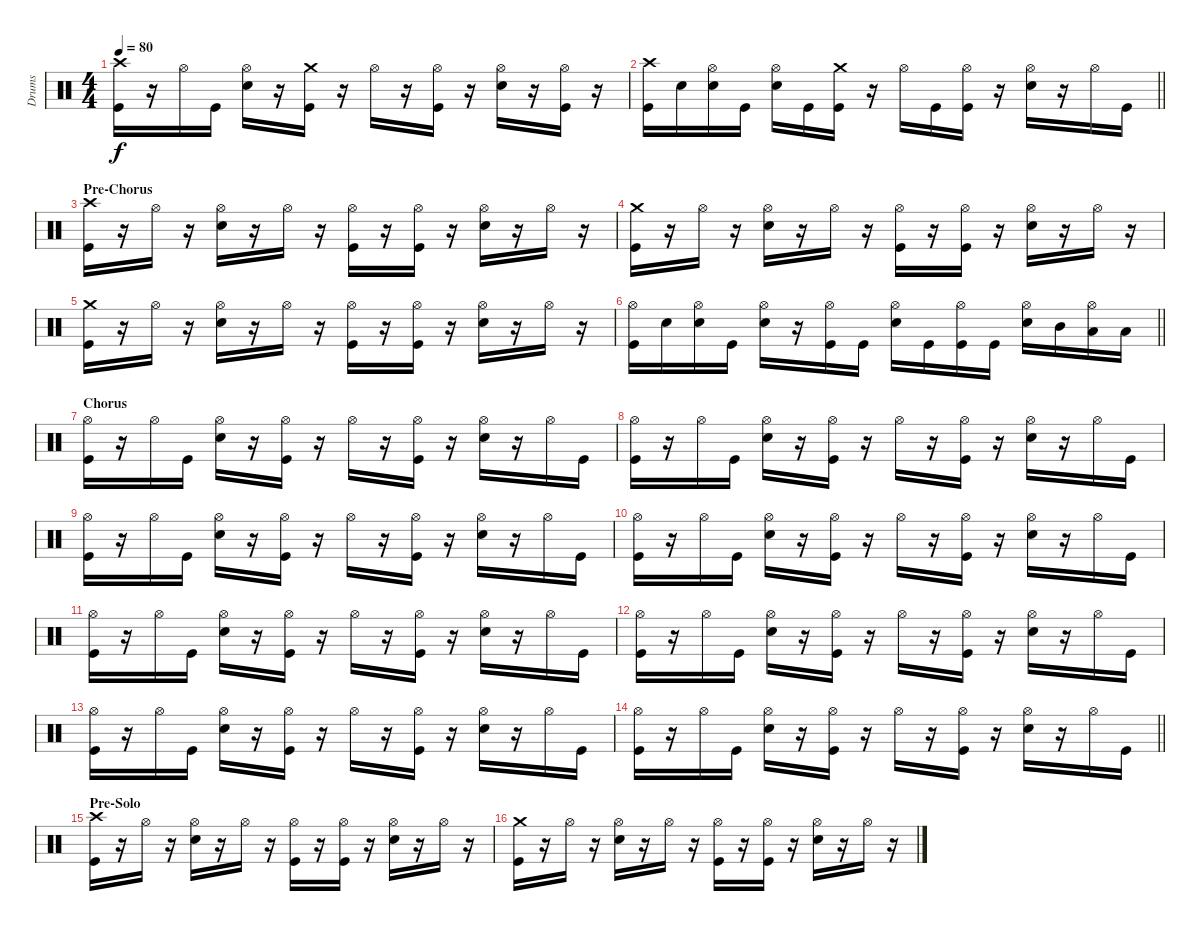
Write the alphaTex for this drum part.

\track ("Drums" "Drums") {instrument percussion}
\staff {score}
\articulation defaults
\ts (4 4)
\tempo 80
\clef neutral
\ks c
("Crash high (hit)" "Kick (hit)").16{dy f} r.16 "Hi-Hat (open)".16 "Kick (hit)".16 ("Hi-Hat (open)" "Electric Snare (hit)").16 r.16 ("Crash medium (hit)" "Kick (hit)").16 r.16 "Hi-Hat (open)".16 r.16 ("Hi-Hat (open)" "Kick (hit)").16 r.16 ("Hi-Hat (open)" "Electric Snare (hit)").16 r.16 ("Hi-Hat (open)" "Kick (hit)").16 r.16 |
\barLineRight lightlight
("Crash high (hit)" "Kick (hit)").16 "Electric Snare (hit)".16 ("Hi-Hat (open)" "Electric Snare (hit)").16 "Kick (hit)".16 ("Hi-Hat (open)" "Electric Snare (hit)").16 "Kick (hit)".16 ("Crash medium (hit)" "Kick (hit)").16 r.16 "Hi-Hat (open)".16 "Kick (hit)".16 ("Hi-Hat (open)" "Kick (hit)").16 r.16 ("Hi-Hat (open)" "Electric Snare (hit)").16 r.16 "Hi-Hat (open)".16 "Kick (hit)".16 |
\section ("" "Pre-Chorus")
("Crash high (hit)" "Kick (hit)").16 r.16 "Hi-Hat (open)".16 r.16 ("Hi-Hat (open)" "Electric Snare (hit)").16 r.16 "Hi-Hat (open)".16 r.16 ("Hi-Hat (open)" "Kick (hit)").16 r.16 ("Hi-Hat (open)" "Kick (hit)").16 r.16 ("Hi-Hat (open)" "Electric Snare (hit)").16 r.16 "Hi-Hat (open)".16 r.16 |
("Crash medium (hit)" "Kick (hit)").16 r.16 "Hi-Hat (open)".16 r.16 ("Hi-Hat (open)" "Electric Snare (hit)").16 r.16 "Hi-Hat (open)".16 r.16 ("Hi-Hat (open)" "Kick (hit)").16 r.16 ("Hi-Hat (open)" "Kick (hit)").16 r.16 ("Hi-Hat (open)" "Electric Snare (hit)").16 r.16 "Hi-Hat (open)".16 r.16 |
("Crash medium (hit)" "Kick (hit)").16 r.16 "Hi-Hat (open)".16 r.16 ("Hi-Hat (open)" "Electric Snare (hit)").16 r.16 "Hi-Hat (open)".16 r.16 ("Hi-Hat (open)" "Kick (hit)").16 r.16 ("Hi-Hat (open)" "Kick (hit)").16 r.16 ("Hi-Hat (open)" "Electric Snare (hit)").16 r.16 "Hi-Hat (open)".16 r.16 |
\barLineRight lightlight
("Hi-Hat (open)" "Kick (hit)").16 "Electric Snare (hit)".16 ("Hi-Hat (open)" "Electric Snare (hit)").16 "Kick (hit)".16 ("Hi-Hat (open)" "Electric Snare (hit)").16 r.16 ("Hi-Hat (open)" "Kick (hit)").16 "Kick (hit)".16 ("Hi-Hat (open)" "Electric Snare (hit)").16 "Kick (hit)".16 ("Hi-Hat (open)" "Kick (hit)").16 "Kick (hit)".16 ("Hi-Hat (open)" "Electric Snare (hit)").16 "Mid Tom (hit)".16 ("Hi-Hat (open)" "Low Tom (hit)").16 "Low Floor Tom (hit)".16 |
\section ("" "Chorus")
("Hi-Hat (open)" "Kick (hit)").16 r.16 "Hi-Hat (open)".16 "Kick (hit)".16 ("Hi-Hat (open)" "Electric Snare (hit)").16 r.16 ("Hi-Hat (open)" "Kick (hit)").16 r.16 "Hi-Hat (open)".16 r.16 ("Hi-Hat (open)" "Kick (hit)").16 r.16 ("Hi-Hat (open)" "Electric Snare (hit)").16 r.16 "Hi-Hat (open)".16 "Kick (hit)".16 |
("Hi-Hat (open)" "Kick (hit)").16 r.16 "Hi-Hat (open)".16 "Kick (hit)".16 ("Hi-Hat (open)" "Electric Snare (hit)").16 r.16 ("Hi-Hat (open)" "Kick (hit)").16 r.16 "Hi-Hat (open)".16 r.16 ("Hi-Hat (open)" "Kick (hit)").16 r.16 ("Hi-Hat (open)" "Electric Snare (hit)").16 r.16 "Hi-Hat (open)".16 "Kick (hit)".16 |
("Hi-Hat (open)" "Kick (hit)").16 r.16 "Hi-Hat (open)".16 "Kick (hit)".16 ("Hi-Hat (open)" "Electric Snare (hit)").16 r.16 ("Hi-Hat (open)" "Kick (hit)").16 r.16 "Hi-Hat (open)".16 r.16 ("Hi-Hat (open)" "Kick (hit)").16 r.16 ("Hi-Hat (open)" "Electric Snare (hit)").16 r.16 "Hi-Hat (open)".16 "Kick (hit)".16 |
("Hi-Hat (open)" "Kick (hit)").16 r.16 "Hi-Hat (open)".16 "Kick (hit)".16 ("Hi-Hat (open)" "Electric Snare (hit)").16 r.16 ("Hi-Hat (open)" "Kick (hit)").16 r.16 "Hi-Hat (open)".16 r.16 ("Hi-Hat (open)" "Kick (hit)").16 r.16 ("Hi-Hat (open)" "Electric Snare (hit)").16 r.16 "Hi-Hat (open)".16 "Kick (hit)".16 |
("Hi-Hat (open)" "Kick (hit)").16 r.16 "Hi-Hat (open)".16 "Kick (hit)".16 ("Hi-Hat (open)" "Electric Snare (hit)").16 r.16 ("Hi-Hat (open)" "Kick (hit)").16 r.16 "Hi-Hat (open)".16 r.16 ("Hi-Hat (open)" "Kick (hit)").16 r.16 ("Hi-Hat (open)" "Electric Snare (hit)").16 r.16 "Hi-Hat (open)".16 "Kick (hit)".16 |
("Hi-Hat (open)" "Kick (hit)").16 r.16 "Hi-Hat (open)".16 "Kick (hit)".16 ("Hi-Hat (open)" "Electric Snare (hit)").16 r.16 ("Hi-Hat (open)" "Kick (hit)").16 r.16 "Hi-Hat (open)".16 r.16 ("Hi-Hat (open)" "Kick (hit)").16 r.16 ("Hi-Hat (open)" "Electric Snare (hit)").16 r.16 "Hi-Hat (open)".16 "Kick (hit)".16 |
("Hi-Hat (open)" "Kick (hit)").16 r.16 "Hi-Hat (open)".16 "Kick (hit)".16 ("Hi-Hat (open)" "Electric Snare (hit)").16 r.16 ("Hi-Hat (open)" "Kick (hit)").16 r.16 "Hi-Hat (open)".16 r.16 ("Hi-Hat (open)" "Kick (hit)").16 r.16 ("Hi-Hat (open)" "Electric Snare (hit)").16 r.16 "Hi-Hat (open)".16 "Kick (hit)".16 |
\barLineRight lightlight
("Hi-Hat (open)" "Kick (hit)").16 r.16 "Hi-Hat (open)".16 "Kick (hit)".16 ("Hi-Hat (open)" "Electric Snare (hit)").16 r.16 ("Hi-Hat (open)" "Kick (hit)").16 r.16 "Hi-Hat (open)".16 r.16 ("Hi-Hat (open)" "Kick (hit)").16 r.16 ("Hi-Hat (open)" "Electric Snare (hit)").16 r.16 "Hi-Hat (open)".16 "Kick (hit)".16 |
\section ("" "Pre-Solo")
("Crash high (hit)" "Kick (hit)").16 r.16 "Hi-Hat (open)".16 r.16 ("Hi-Hat (open)" "Electric Snare (hit)").16 r.16 "Hi-Hat (open)".16 r.16 ("Hi-Hat (open)" "Kick (hit)").16 r.16 ("Hi-Hat (open)" "Kick (hit)").16 r.16 ("Hi-Hat (open)" "Electric Snare (hit)").16 r.16 "Hi-Hat (open)".16 r.16 |
("Crash medium (hit)" "Kick (hit)").16 r.16 "Hi-Hat (open)".16 r.16 ("Hi-Hat (open)" "Electric Snare (hit)").16 r.16 "Hi-Hat (open)".16 r.16 ("Hi-Hat (open)" "Kick (hit)").16 r.16 ("Hi-Hat (open)" "Kick (hit)").16 r.16 ("Hi-Hat (open)" "Electric Snare (hit)").16 r.16 "Hi-Hat (open)".16 r.16
